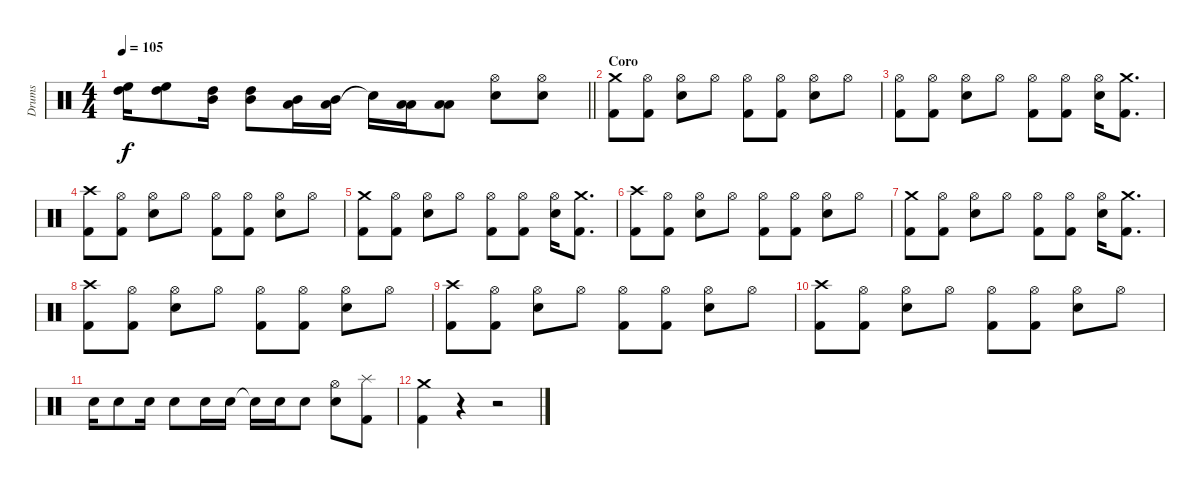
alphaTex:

\track ("Drums" "Drums") {instrument percussion}
\staff {score}
\articulation defaults
\ts (4 4)
\tempo 105
\clef neutral
\barLineRight lightlight
\ks c
("High Tom (hit)" "High Floor Tom (hit)").16{dy f} ("High Tom (hit)" "High Floor Tom (hit)").8 ("Mid Tom (hit)" "High Tom (hit)").16 ("Mid Tom (hit)" "High Tom (hit)").8 ("Low Tom (hit)" "Mid Tom (hit)").16 ("Low Tom (hit)" "Mid Tom (hit)").16 "Snare (hit)"{t}.16 ("Low Floor Tom (hit)" "Low Tom (hit)").16 ("Low Floor Tom (hit)" "Low Tom (hit)").8 ("Hi-Hat (open)" "Snare (hit) 2").8 ("Hi-Hat (open)" "Snare (hit) 2").8 |
\section ("" "Coro")
("Crash medium (hit)" "Kick (hit) 2").8 ("Hi-Hat (open)" "Kick (hit) 2").8 ("Hi-Hat (open)" "Snare (hit) 2").8 "Hi-Hat (open)".8 ("Hi-Hat (open)" "Kick (hit) 2").8 ("Hi-Hat (open)" "Kick (hit) 2").8 ("Hi-Hat (open)" "Snare (hit) 2").8 "Hi-Hat (open)".8 |
("Hi-Hat (open)" "Kick (hit) 2").8 ("Hi-Hat (open)" "Kick (hit) 2").8 ("Hi-Hat (open)" "Snare (hit) 2").8 "Hi-Hat (open)".8 ("Hi-Hat (open)" "Kick (hit) 2").8 ("Hi-Hat (open)" "Kick (hit) 2").8 ("Hi-Hat (open)" "Snare (hit) 2").16 ("Crash medium (hit)" "Kick (hit) 2").8{d} |
("Crash high (hit)" "Kick (hit) 2").8 ("Hi-Hat (open)" "Kick (hit) 2").8 ("Hi-Hat (open)" "Snare (hit) 2").8 "Hi-Hat (open)".8 ("Hi-Hat (open)" "Kick (hit) 2").8 ("Hi-Hat (open)" "Kick (hit) 2").8 ("Hi-Hat (open)" "Snare (hit) 2").8 "Hi-Hat (open)".8 |
("Crash medium (hit)" "Kick (hit) 2").8 ("Hi-Hat (open)" "Kick (hit) 2").8 ("Hi-Hat (open)" "Snare (hit) 2").8 "Hi-Hat (open)".8 ("Hi-Hat (open)" "Kick (hit) 2").8 ("Hi-Hat (open)" "Kick (hit) 2").8 ("Hi-Hat (open)" "Snare (hit) 2").16 ("Crash medium (hit)" "Kick (hit) 2").8{d} |
("Crash high (hit)" "Kick (hit) 2").8 ("Hi-Hat (open)" "Kick (hit) 2").8 ("Hi-Hat (open)" "Snare (hit) 2").8 "Hi-Hat (open)".8 ("Hi-Hat (open)" "Kick (hit) 2").8 ("Hi-Hat (open)" "Kick (hit) 2").8 ("Hi-Hat (open)" "Snare (hit) 2").8 "Hi-Hat (open)".8 |
("Crash medium (hit)" "Kick (hit) 2").8 ("Hi-Hat (open)" "Kick (hit) 2").8 ("Hi-Hat (open)" "Snare (hit) 2").8 "Hi-Hat (open)".8 ("Hi-Hat (open)" "Kick (hit) 2").8 ("Hi-Hat (open)" "Kick (hit) 2").8 ("Hi-Hat (open)" "Snare (hit) 2").16 ("Crash medium (hit)" "Kick (hit) 2").8{d} |
("Crash high (hit)" "Kick (hit) 2").8 ("Hi-Hat (open)" "Kick (hit) 2").8 ("Hi-Hat (open)" "Snare (hit) 2").8 "Hi-Hat (open)".8 ("Hi-Hat (open)" "Kick (hit) 2").8 ("Hi-Hat (open)" "Kick (hit) 2").8 ("Hi-Hat (open)" "Snare (hit) 2").8 "Hi-Hat (open)".8 |
("Crash high (hit)" "Kick (hit) 2").8 ("Hi-Hat (open)" "Kick (hit) 2").8 ("Hi-Hat (open)" "Snare (hit) 2").8 "Hi-Hat (open)".8 ("Hi-Hat (open)" "Kick (hit) 2").8 ("Hi-Hat (open)" "Kick (hit) 2").8 ("Hi-Hat (open)" "Snare (hit) 2").8 "Hi-Hat (open)".8 |
("Crash high (hit)" "Kick (hit) 2").8 ("Hi-Hat (open)" "Kick (hit) 2").8 ("Hi-Hat (open)" "Snare (hit) 2").8 "Hi-Hat (open)".8 ("Hi-Hat (open)" "Kick (hit) 2").8 ("Hi-Hat (open)" "Kick (hit) 2").8 ("Hi-Hat (open)" "Snare (hit) 2").8 "Hi-Hat (open)".8 |
"Snare (hit) 2".16 "Snare (hit) 2".8 "Snare (hit) 2".16 "Snare (hit) 2".8 "Snare (hit) 2".16 "Snare (hit) 2".16 "Snare (hit)"{t}.16 "Snare (hit) 2".16 "Snare (hit) 2".8 ("Hi-Hat (open)" "Snare (hit) 2").8 ("Splash (hit)" "Kick (hit) 2").8 |
("Crash medium (hit)" "Kick (hit) 2").4 r.4 r.2
